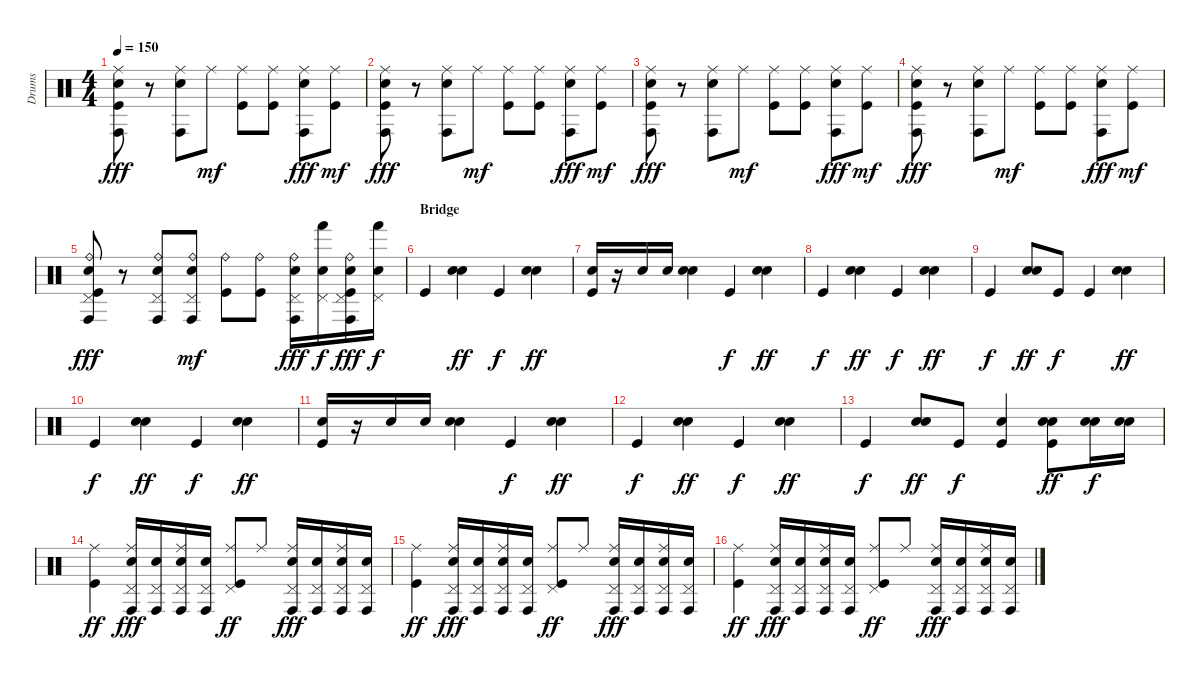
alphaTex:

\track ("Drums" "Drums") {instrument percussion}
\staff {score}
\articulation defaults
\ts (4 4)
\tempo 150
\clef neutral
\ks c
("Ride (middle)" "Conga high (hit)" "Electric Snare (hit)" "Kick (hit)").8{dy fff} r.8 ("Ride (middle)" "Conga high (hit)" "Electric Snare (hit)").8 "Ride (middle)".8{dy mf} ("Ride (middle)" "Kick (hit)").8 ("Ride (middle)" "Kick (hit)").8 ("Ride (middle)" "Conga high (hit)" "Electric Snare (hit)").8{dy fff} ("Ride (middle)" "Kick (hit)").8{dy mf} |
("Ride (middle)" "Conga high (hit)" "Electric Snare (hit)" "Kick (hit)").8{dy fff} r.8 ("Ride (middle)" "Conga high (hit)" "Electric Snare (hit)").8 "Ride (middle)".8{dy mf} ("Ride (middle)" "Kick (hit)").8 ("Ride (middle)" "Kick (hit)").8 ("Ride (middle)" "Conga high (hit)" "Electric Snare (hit)").8{dy fff} ("Ride (middle)" "Kick (hit)").8{dy mf} |
("Ride (middle)" "Conga high (hit)" "Electric Snare (hit)" "Kick (hit)").8{dy fff} r.8 ("Ride (middle)" "Conga high (hit)" "Electric Snare (hit)").8 "Ride (middle)".8{dy mf} ("Ride (middle)" "Kick (hit)").8 ("Ride (middle)" "Kick (hit)").8 ("Ride (middle)" "Conga high (hit)" "Electric Snare (hit)").8{dy fff} ("Ride (middle)" "Kick (hit)").8{dy mf} |
("Ride (middle)" "Conga high (hit)" "Electric Snare (hit)" "Kick (hit)").8{dy fff} r.8 ("Ride (middle)" "Conga high (hit)" "Electric Snare (hit)").8 "Ride (middle)".8{dy mf} ("Ride (middle)" "Kick (hit)").8 ("Ride (middle)" "Kick (hit)").8 ("Ride (middle)" "Conga high (hit)" "Electric Snare (hit)").8{dy fff} ("Ride (middle)" "Kick (hit)").8{dy mf} |
("Ride (bell)" "Pedal Hi-Hat (hit)" "Conga high (hit)" "Electric Snare (hit)" "Kick (hit)").8{dy fff} r.8 ("Ride (bell)" "Pedal Hi-Hat (hit)" "Conga high (hit)" "Electric Snare (hit)").8 ("Ride (bell)" "Pedal Hi-Hat (hit)" "Conga high (hit)" "Electric Snare (hit)").8{dy mf} ("Ride (bell)" "Kick (hit)").8 ("Ride (bell)" "Kick (hit)").8 ("Ride (bell)" "Pedal Hi-Hat (hit)" "Conga high (hit)" "Electric Snare (hit)").16{dy fff} ("Pedal Hi-Hat (hit)" "Hand (hit)" "Electric Snare (hit)").16{dy f} ("Ride (bell)" "Pedal Hi-Hat (hit)" "Conga high (hit)" "Electric Snare (hit)" "Kick (hit)").16{dy fff} ("Pedal Hi-Hat (hit)" "Hand (hit)" "Electric Snare (hit)").16{dy f} |
\section ("" "Bridge")
"Kick (hit)".4 ("Snare (hit) 2" "Electric Snare (hit)").4{dy ff} "Kick (hit)".4{dy f} ("Snare (hit) 2" "Electric Snare (hit)").4{dy ff} |
("Electric Snare (hit)" "Kick (hit)").16 r.16 "Electric Snare (hit)".16 "Electric Snare (hit)".16 ("Snare (hit) 2" "Electric Snare (hit)").4 "Kick (hit)".4{dy f} ("Snare (hit) 2" "Electric Snare (hit)").4{dy ff} |
"Kick (hit)".4{dy f} ("Snare (hit) 2" "Electric Snare (hit)").4{dy ff} "Kick (hit)".4{dy f} ("Snare (hit) 2" "Electric Snare (hit)").4{dy ff} |
"Kick (hit)".4{dy f} ("Snare (hit) 2" "Electric Snare (hit)").8{dy ff} "Kick (hit)".8{dy f} "Kick (hit)".4 ("Snare (hit) 2" "Electric Snare (hit)").4{dy ff} |
"Kick (hit)".4{dy f} ("Snare (hit) 2" "Electric Snare (hit)").4{dy ff} "Kick (hit)".4{dy f} ("Snare (hit) 2" "Electric Snare (hit)").4{dy ff} |
("Electric Snare (hit)" "Kick (hit)").16 r.16 "Electric Snare (hit)".16 "Electric Snare (hit)".16 ("Snare (hit) 2" "Electric Snare (hit)").4 "Kick (hit)".4{dy f} ("Snare (hit) 2" "Electric Snare (hit)").4{dy ff} |
"Kick (hit)".4{dy f} ("Snare (hit) 2" "Electric Snare (hit)").4{dy ff} "Kick (hit)".4{dy f} ("Snare (hit) 2" "Electric Snare (hit)").4{dy ff} |
"Kick (hit)".4{dy f} ("Snare (hit) 2" "Electric Snare (hit)").8{dy ff} "Kick (hit)".8{dy f} ("Electric Snare (hit)" "Kick (hit)").4 ("Snare (hit) 2" "Electric Snare (hit)" "Kick (hit)").8{dy ff} ("Snare (hit) 2" "Electric Snare (hit)").16{dy f} ("Snare (hit) 2" "Electric Snare (hit)").16 |
("Ride (middle)" "Kick (hit)").4{dy ff} ("Ride (middle)" "Pedal Hi-Hat (hit)" "Conga high (hit)" "Electric Snare (hit)").16{dy fff} ("Pedal Hi-Hat (hit)" "Conga high (hit)" "Electric Snare (hit)").16 ("Ride (middle)" "Pedal Hi-Hat (hit)" "Conga high (hit)" "Electric Snare (hit)").16 ("Pedal Hi-Hat (hit)" "Conga high (hit)" "Electric Snare (hit)").16 ("Ride (middle)" "Pedal Hi-Hat (hit)" "Kick (hit)").8{dy ff} "Ride (middle)".8 ("Ride (middle)" "Pedal Hi-Hat (hit)" "Conga high (hit)" "Electric Snare (hit)").16{dy fff} ("Pedal Hi-Hat (hit)" "Conga high (hit)" "Electric Snare (hit)").16 ("Ride (middle)" "Pedal Hi-Hat (hit)" "Conga high (hit)" "Electric Snare (hit)").16 ("Pedal Hi-Hat (hit)" "Conga high (hit)" "Electric Snare (hit)").16 |
("Ride (middle)" "Kick (hit)").4{dy ff} ("Ride (middle)" "Pedal Hi-Hat (hit)" "Conga high (hit)" "Electric Snare (hit)").16{dy fff} ("Pedal Hi-Hat (hit)" "Conga high (hit)" "Electric Snare (hit)").16 ("Ride (middle)" "Pedal Hi-Hat (hit)" "Conga high (hit)" "Electric Snare (hit)").16 ("Pedal Hi-Hat (hit)" "Conga high (hit)" "Electric Snare (hit)").16 ("Ride (middle)" "Pedal Hi-Hat (hit)" "Kick (hit)").8{dy ff} "Ride (middle)".8 ("Ride (middle)" "Pedal Hi-Hat (hit)" "Conga high (hit)" "Electric Snare (hit)").16{dy fff} ("Pedal Hi-Hat (hit)" "Conga high (hit)" "Electric Snare (hit)").16 ("Ride (middle)" "Pedal Hi-Hat (hit)" "Conga high (hit)" "Electric Snare (hit)").16 ("Pedal Hi-Hat (hit)" "Conga high (hit)" "Electric Snare (hit)").16 |
("Ride (middle)" "Kick (hit)").4{dy ff} ("Ride (middle)" "Pedal Hi-Hat (hit)" "Conga high (hit)" "Electric Snare (hit)").16{dy fff} ("Pedal Hi-Hat (hit)" "Conga high (hit)" "Electric Snare (hit)").16 ("Ride (middle)" "Pedal Hi-Hat (hit)" "Conga high (hit)" "Electric Snare (hit)").16 ("Pedal Hi-Hat (hit)" "Conga high (hit)" "Electric Snare (hit)").16 ("Ride (middle)" "Pedal Hi-Hat (hit)" "Kick (hit)").8{dy ff} "Ride (middle)".8 ("Ride (middle)" "Pedal Hi-Hat (hit)" "Conga high (hit)" "Electric Snare (hit)").16{dy fff} ("Pedal Hi-Hat (hit)" "Conga high (hit)" "Electric Snare (hit)").16 ("Ride (middle)" "Pedal Hi-Hat (hit)" "Conga high (hit)" "Electric Snare (hit)").16 ("Pedal Hi-Hat (hit)" "Conga high (hit)" "Electric Snare (hit)").16
